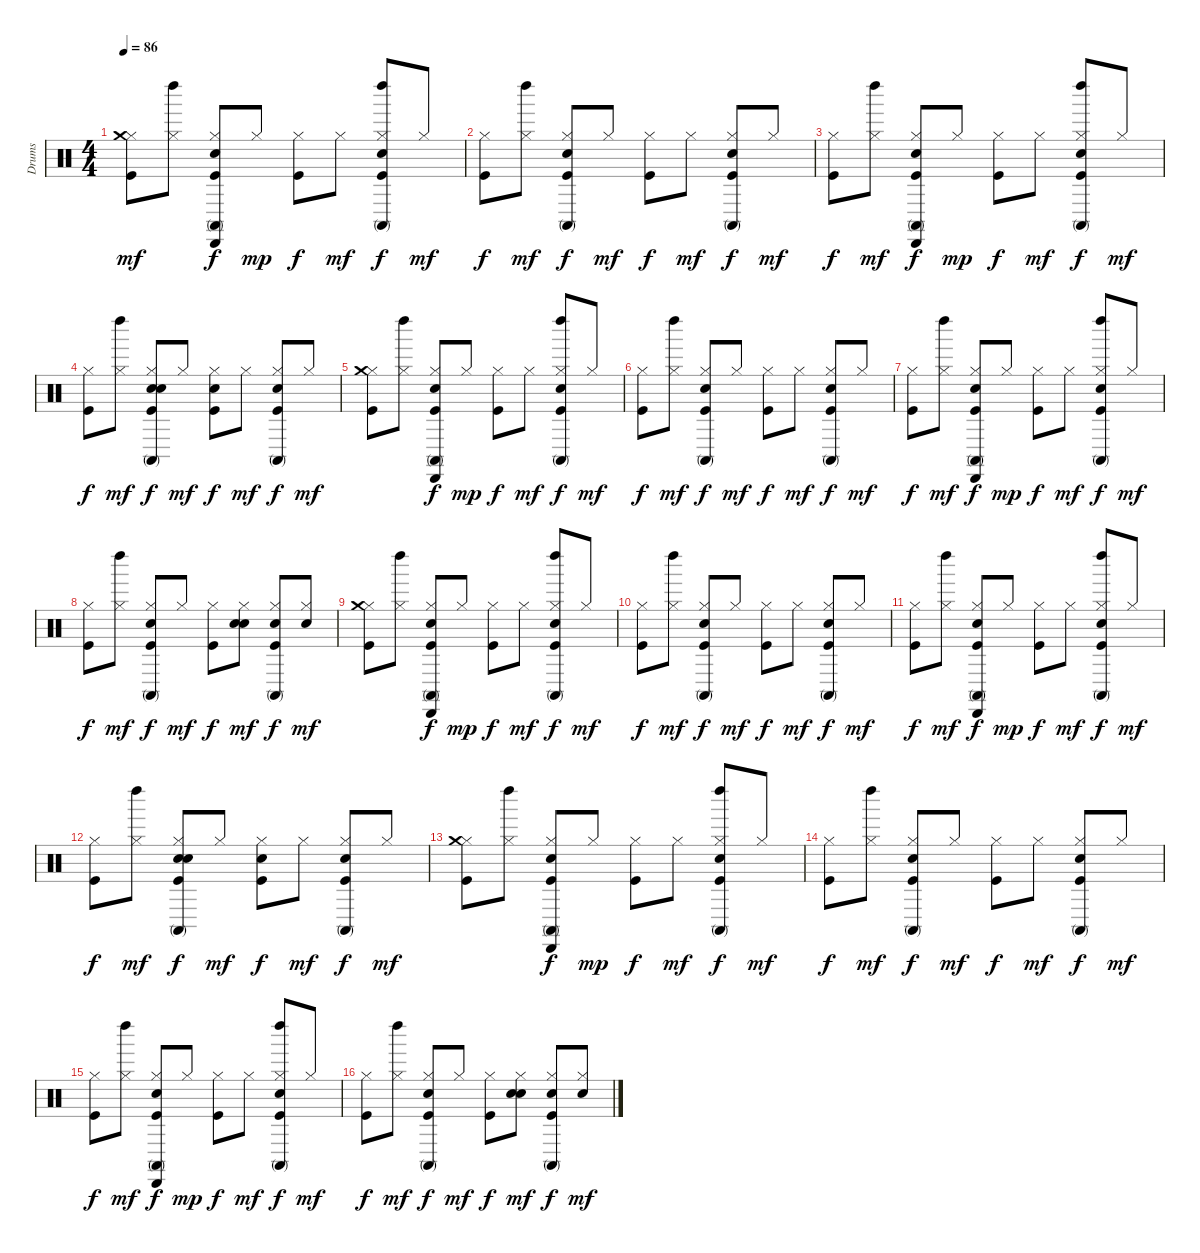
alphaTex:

\track ("Drums" "Drums") {instrument percussion}
\staff {score}
\articulation defaults
\ts (4 4)
\tempo 86
\clef neutral
\ks c
("Hi-Hat (closed)" "Crash medium (hit)" "Kick (hit)").8{dy mf} ("Hi-Hat (closed)" "Left Maraca (hit)").8 ("Cabasa (hit)" "Snare (hit) 2" "Conga high (mute)" "Hi-Hat (closed)" "Kick (hit)").8{dy f} "Hi-Hat (closed)".8{dy mp} ("Hi-Hat (closed)" "Kick (hit)").8{dy f} "Hi-Hat (closed)".8{dy mf} ("Left Maraca (hit)" "Snare (hit) 2" "Conga high (mute)" "Hi-Hat (closed)" "Kick (hit)").8{dy f} "Hi-Hat (closed)".8{dy mf} |
("Hi-Hat (closed)" "Kick (hit)").8{dy f} ("Hi-Hat (closed)" "Left Maraca (hit)").8{dy mf} ("Snare (hit) 2" "Conga high (mute)" "Hi-Hat (closed)" "Kick (hit)").8{dy f} "Hi-Hat (closed)".8{dy mf} ("Hi-Hat (closed)" "Kick (hit)").8{dy f} "Hi-Hat (closed)".8{dy mf} ("Snare (hit) 2" "Conga high (mute)" "Hi-Hat (closed)" "Kick (hit)").8{dy f} "Hi-Hat (closed)".8{dy mf} |
("Hi-Hat (closed)" "Kick (hit)").8{dy f} ("Hi-Hat (closed)" "Left Maraca (hit)").8{dy mf} ("Cabasa (hit)" "Snare (hit) 2" "Conga high (mute)" "Hi-Hat (closed)" "Kick (hit)").8{dy f} "Hi-Hat (closed)".8{dy mp} ("Hi-Hat (closed)" "Kick (hit)").8{dy f} "Hi-Hat (closed)".8{dy mf} ("Left Maraca (hit)" "Snare (hit) 2" "Conga high (mute)" "Hi-Hat (closed)" "Kick (hit)").8{dy f} "Hi-Hat (closed)".8{dy mf} |
("Hi-Hat (closed)" "Kick (hit)").8{dy f} ("Hi-Hat (closed)" "Left Maraca (hit)").8{dy mf} ("Snare (hit) 2" "Conga high (mute)" "Hi-Hat (closed)" "Kick (hit)" "Snare (hit) 2").8{dy f} "Hi-Hat (closed)".8{dy mf} ("Hi-Hat (closed)" "Kick (hit)" "Snare (hit) 2").8{dy f} "Hi-Hat (closed)".8{dy mf} ("Snare (hit) 2" "Conga high (mute)" "Hi-Hat (closed)" "Kick (hit)").8{dy f} "Hi-Hat (closed)".8{dy mf} |
("Hi-Hat (closed)" "Crash medium (hit)" "Kick (hit)").8 ("Hi-Hat (closed)" "Left Maraca (hit)").8 ("Cabasa (hit)" "Snare (hit) 2" "Conga high (mute)" "Hi-Hat (closed)" "Kick (hit)").8{dy f} "Hi-Hat (closed)".8{dy mp} ("Hi-Hat (closed)" "Kick (hit)").8{dy f} "Hi-Hat (closed)".8{dy mf} ("Left Maraca (hit)" "Snare (hit) 2" "Conga high (mute)" "Hi-Hat (closed)" "Kick (hit)").8{dy f} "Hi-Hat (closed)".8{dy mf} |
("Hi-Hat (closed)" "Kick (hit)").8{dy f} ("Hi-Hat (closed)" "Left Maraca (hit)").8{dy mf} ("Snare (hit) 2" "Conga high (mute)" "Hi-Hat (closed)" "Kick (hit)").8{dy f} "Hi-Hat (closed)".8{dy mf} ("Hi-Hat (closed)" "Kick (hit)").8{dy f} "Hi-Hat (closed)".8{dy mf} ("Snare (hit) 2" "Conga high (mute)" "Hi-Hat (closed)" "Kick (hit)").8{dy f} "Hi-Hat (closed)".8{dy mf} |
("Hi-Hat (closed)" "Kick (hit)").8{dy f} ("Hi-Hat (closed)" "Left Maraca (hit)").8{dy mf} ("Cabasa (hit)" "Snare (hit) 2" "Conga high (mute)" "Hi-Hat (closed)" "Kick (hit)").8{dy f} "Hi-Hat (closed)".8{dy mp} ("Hi-Hat (closed)" "Kick (hit)").8{dy f} "Hi-Hat (closed)".8{dy mf} ("Left Maraca (hit)" "Snare (hit) 2" "Conga high (mute)" "Hi-Hat (closed)" "Kick (hit)").8{dy f} "Hi-Hat (closed)".8{dy mf} |
("Hi-Hat (closed)" "Kick (hit)").8{dy f} ("Hi-Hat (closed)" "Left Maraca (hit)").8{dy mf} ("Snare (hit) 2" "Conga high (mute)" "Hi-Hat (closed)" "Kick (hit)").8{dy f} "Hi-Hat (closed)".8{dy mf} ("Hi-Hat (closed)" "Kick (hit)").8{dy f} ("Snare (hit) 2" "Hi-Hat (closed)" "Snare (hit) 2").8{dy mf} ("Snare (hit) 2" "Conga high (mute)" "Hi-Hat (closed)" "Kick (hit)").8{dy f} ("Snare (hit) 2" "Hi-Hat (closed)").8{dy mf} |
("Hi-Hat (closed)" "Crash medium (hit)" "Kick (hit)").8 ("Hi-Hat (closed)" "Left Maraca (hit)").8 ("Cabasa (hit)" "Snare (hit) 2" "Conga high (mute)" "Hi-Hat (closed)" "Kick (hit)").8{dy f} "Hi-Hat (closed)".8{dy mp} ("Hi-Hat (closed)" "Kick (hit)").8{dy f} "Hi-Hat (closed)".8{dy mf} ("Left Maraca (hit)" "Snare (hit) 2" "Conga high (mute)" "Hi-Hat (closed)" "Kick (hit)").8{dy f} "Hi-Hat (closed)".8{dy mf} |
("Hi-Hat (closed)" "Kick (hit)").8{dy f} ("Hi-Hat (closed)" "Left Maraca (hit)").8{dy mf} ("Snare (hit) 2" "Conga high (mute)" "Hi-Hat (closed)" "Kick (hit)").8{dy f} "Hi-Hat (closed)".8{dy mf} ("Hi-Hat (closed)" "Kick (hit)").8{dy f} "Hi-Hat (closed)".8{dy mf} ("Snare (hit) 2" "Conga high (mute)" "Hi-Hat (closed)" "Kick (hit)").8{dy f} "Hi-Hat (closed)".8{dy mf} |
("Hi-Hat (closed)" "Kick (hit)").8{dy f} ("Hi-Hat (closed)" "Left Maraca (hit)").8{dy mf} ("Cabasa (hit)" "Snare (hit) 2" "Conga high (mute)" "Hi-Hat (closed)" "Kick (hit)").8{dy f} "Hi-Hat (closed)".8{dy mp} ("Hi-Hat (closed)" "Kick (hit)").8{dy f} "Hi-Hat (closed)".8{dy mf} ("Left Maraca (hit)" "Snare (hit) 2" "Conga high (mute)" "Hi-Hat (closed)" "Kick (hit)").8{dy f} "Hi-Hat (closed)".8{dy mf} |
("Hi-Hat (closed)" "Kick (hit)").8{dy f} ("Hi-Hat (closed)" "Left Maraca (hit)").8{dy mf} ("Snare (hit) 2" "Conga high (mute)" "Hi-Hat (closed)" "Kick (hit)" "Snare (hit) 2").8{dy f} "Hi-Hat (closed)".8{dy mf} ("Hi-Hat (closed)" "Kick (hit)" "Snare (hit) 2").8{dy f} "Hi-Hat (closed)".8{dy mf} ("Snare (hit) 2" "Conga high (mute)" "Hi-Hat (closed)" "Kick (hit)").8{dy f} "Hi-Hat (closed)".8{dy mf} |
("Hi-Hat (closed)" "Crash medium (hit)" "Kick (hit)").8 ("Hi-Hat (closed)" "Left Maraca (hit)").8 ("Cabasa (hit)" "Snare (hit) 2" "Conga high (mute)" "Hi-Hat (closed)" "Kick (hit)").8{dy f} "Hi-Hat (closed)".8{dy mp} ("Hi-Hat (closed)" "Kick (hit)").8{dy f} "Hi-Hat (closed)".8{dy mf} ("Left Maraca (hit)" "Snare (hit) 2" "Conga high (mute)" "Hi-Hat (closed)" "Kick (hit)").8{dy f} "Hi-Hat (closed)".8{dy mf} |
("Hi-Hat (closed)" "Kick (hit)").8{dy f} ("Hi-Hat (closed)" "Left Maraca (hit)").8{dy mf} ("Snare (hit) 2" "Conga high (mute)" "Hi-Hat (closed)" "Kick (hit)").8{dy f} "Hi-Hat (closed)".8{dy mf} ("Hi-Hat (closed)" "Kick (hit)").8{dy f} "Hi-Hat (closed)".8{dy mf} ("Snare (hit) 2" "Conga high (mute)" "Hi-Hat (closed)" "Kick (hit)").8{dy f} "Hi-Hat (closed)".8{dy mf} |
("Hi-Hat (closed)" "Kick (hit)").8{dy f} ("Hi-Hat (closed)" "Left Maraca (hit)").8{dy mf} ("Cabasa (hit)" "Snare (hit) 2" "Conga high (mute)" "Hi-Hat (closed)" "Kick (hit)").8{dy f} "Hi-Hat (closed)".8{dy mp} ("Hi-Hat (closed)" "Kick (hit)").8{dy f} "Hi-Hat (closed)".8{dy mf} ("Left Maraca (hit)" "Snare (hit) 2" "Conga high (mute)" "Hi-Hat (closed)" "Kick (hit)").8{dy f} "Hi-Hat (closed)".8{dy mf} |
("Hi-Hat (closed)" "Kick (hit)").8{dy f} ("Hi-Hat (closed)" "Left Maraca (hit)").8{dy mf} ("Snare (hit) 2" "Conga high (mute)" "Hi-Hat (closed)" "Kick (hit)").8{dy f} "Hi-Hat (closed)".8{dy mf} ("Hi-Hat (closed)" "Kick (hit)").8{dy f} ("Snare (hit) 2" "Hi-Hat (closed)" "Snare (hit) 2").8{dy mf} ("Snare (hit) 2" "Conga high (mute)" "Hi-Hat (closed)" "Kick (hit)").8{dy f} ("Snare (hit) 2" "Hi-Hat (closed)").8{dy mf}
